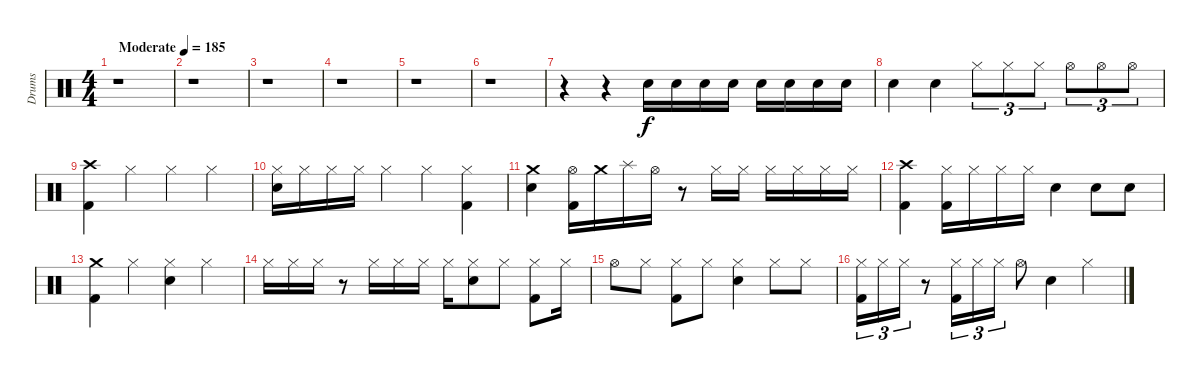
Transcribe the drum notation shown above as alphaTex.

\track ("Drums" "Drums") {instrument percussion}
\staff {score}
\articulation defaults
\ts (4 4)
\tempo (185 "Moderate")
\clef neutral
\ks c
r.1{dy f} |
r.1 |
r.1 |
r.1 |
r.1 |
r.1 |
r.4 r.4 "Snare (hit) 2".16 "Snare (hit) 2".16 "Snare (hit) 2".16 "Snare (hit) 2".16 "Snare (hit) 2".16 "Snare (hit) 2".16 "Snare (hit) 2".16 "Snare (hit) 2".16 |
"Snare (hit) 2".4 "Snare (hit) 2".4 "Hi-Hat (closed)".8{tu (3 2)} "Hi-Hat (closed)".8{tu (3 2)} "Hi-Hat (closed)".8{tu (3 2)} "Hi-Hat (open)".8{tu (3 2)} "Hi-Hat (open)".8{tu (3 2)} "Hi-Hat (open)".8{tu (3 2)} |
("Crash high (hit)" "Kick (hit) 2").4 "Hi-Hat (closed)".4 "Hi-Hat (closed)".4 "Hi-Hat (closed)".4 |
("Hi-Hat (closed)" "Snare (hit) 2").16 "Hi-Hat (closed)".16 "Hi-Hat (closed)".16 "Hi-Hat (closed)".16 "Hi-Hat (closed)".4 "Hi-Hat (closed)".4 ("Hi-Hat (closed)" "Kick (hit) 2").4 |
("Crash medium (hit)" "Snare (hit) 2").4 ("Hi-Hat (open)" "Kick (hit) 2").16 "Crash medium (hit)".16 "Splash (hit)".16 "Hi-Hat (open)".16 r.8 "Hi-Hat (closed)".16 "Hi-Hat (closed)".16 "Hi-Hat (closed)".16 "Hi-Hat (closed)".16 "Hi-Hat (closed)".16 "Hi-Hat (closed)".16 |
("Crash high (hit)" "Kick (hit) 2").4 ("Hi-Hat (closed)" "Kick (hit) 2").16 "Hi-Hat (closed)".16 "Hi-Hat (closed)".16 "Hi-Hat (closed)".16 "Snare (hit) 2".4 "Snare (hit) 2".8 "Snare (hit) 2".8 |
("Crash medium (hit)" "Kick (hit) 2").4 "Hi-Hat (closed)".4 ("Hi-Hat (closed)" "Snare (hit) 2").4 "Hi-Hat (closed)".4 |
"Hi-Hat (closed)".16 "Hi-Hat (closed)".16 "Hi-Hat (closed)".16 r.8 "Hi-Hat (closed)".16 "Hi-Hat (closed)".16 "Hi-Hat (closed)".16 "Hi-Hat (closed)".16 ("Hi-Hat (closed)" "Snare (hit) 2").8 "Hi-Hat (closed)".8 ("Hi-Hat (closed)" "Kick (hit) 2").8 "Hi-Hat (closed)".16 |
"Hi-Hat (open)".8 "Hi-Hat (closed)".8 ("Hi-Hat (closed)" "Kick (hit) 2").8 "Hi-Hat (closed)".8 ("Hi-Hat (closed)" "Snare (hit) 2").4 "Hi-Hat (closed)".8 "Hi-Hat (closed)".8 |
("Hi-Hat (closed)" "Kick (hit) 2").16{tu (3 2)} "Hi-Hat (closed)".16{tu (3 2)} "Hi-Hat (closed)".16{tu (3 2)} r.8 ("Hi-Hat (closed)" "Kick (hit) 2").16{tu (3 2)} "Hi-Hat (closed)".16{tu (3 2)} "Hi-Hat (closed)".16{tu (3 2)} "Hi-Hat (open)".8 "Snare (hit) 2".4 "Hi-Hat (closed)".4
